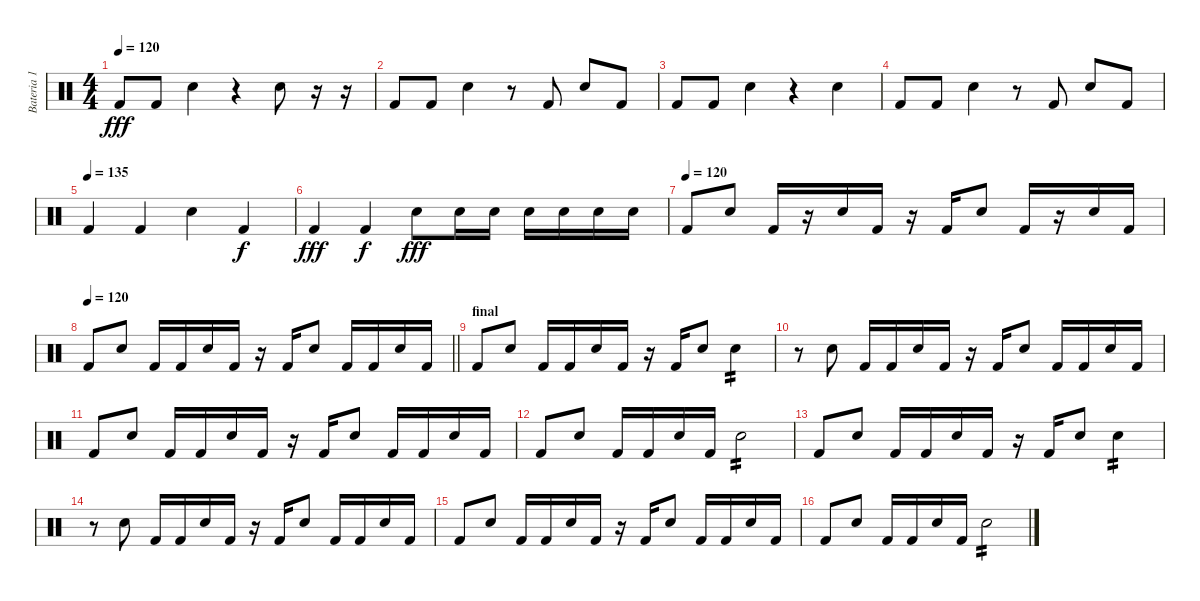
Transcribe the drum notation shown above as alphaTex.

\track ("Bateria 1" "Bateria 1") {instrument percussion}
\staff {score}
\articulation defaults
\ts (4 4)
\tempo 120
\clef neutral
\ks c "Kick (hit) 2".8{dy fff} "Kick (hit) 2".8 "Electric Snare (hit)".4
r.4 "Electric Snare (hit)".8 r.16 r.16 |
"Kick (hit) 2".8 "Kick (hit) 2".8 "Electric Snare (hit)".4 r.8 "Kick (hit) 2".8 "Electric Snare (hit)".8 "Kick (hit) 2".8 |
"Kick (hit) 2".8 "Kick (hit) 2".8 "Electric Snare (hit)".4 r.4 "Electric Snare (hit)".4 |
"Kick (hit) 2".8 "Kick (hit) 2".8 "Electric Snare (hit)".4 r.8 "Kick (hit) 2".8 "Electric Snare (hit)".8 "Kick (hit) 2".8 |
\tempo (135)
"Kick (hit) 2".4 "Kick (hit) 2".4 "Electric Snare (hit)".4 "Kick (hit) 2".4{dy f} |
"Kick (hit) 2".4{dy fff} "Kick (hit) 2".4{dy f} "Electric Snare (hit)".8{dy fff} "Electric Snare (hit)".16 "Electric Snare (hit)".16 "Electric Snare (hit)".16 "Electric Snare (hit)".16 "Electric Snare (hit)".16 "Electric Snare (hit)".16 |
\tempo (120)
"Kick (hit) 2".8 "Electric Snare (hit)".8 "Kick (hit) 2".16 r.16 "Electric Snare (hit)".16 "Kick (hit) 2".16 r.16 "Kick (hit) 2".16 "Electric Snare (hit)".8 "Kick (hit) 2".16 r.16 "Electric Snare (hit)".16 "Kick (hit) 2".16 |
\tempo 120
\barLineRight lightlight "Kick (hit) 2".8 "Electric Snare (hit)".8 "Kick (hit) 2".16 "Kick (hit) 2".16 "Electric Snare (hit)".16 "Kick (hit) 2".16
r.16 "Kick (hit) 2".16 "Electric Snare (hit)".8 "Kick (hit) 2".16 "Kick (hit) 2".16 "Electric Snare (hit)".16 "Kick (hit) 2".16 |
\section ("" "final")
"Kick (hit) 2".8 "Electric Snare (hit)".8 "Kick (hit) 2".16 "Kick (hit) 2".16 "Electric Snare (hit)".16 "Kick (hit) 2".16 r.16 "Kick (hit) 2".16 "Electric Snare (hit)".8 "Electric Snare (hit)".4{tp 2} |
r.8 "Electric Snare (hit)".8 "Kick (hit) 2".16 "Kick (hit) 2".16 "Electric Snare (hit)".16 "Kick (hit) 2".16 r.16 "Kick (hit) 2".16 "Electric Snare (hit)".8 "Kick (hit) 2".16 "Kick (hit) 2".16 "Electric Snare (hit)".16 "Kick (hit) 2".16 |
"Kick (hit) 2".8 "Electric Snare (hit)".8 "Kick (hit) 2".16 "Kick (hit) 2".16 "Electric Snare (hit)".16 "Kick (hit) 2".16 r.16 "Kick (hit) 2".16 "Electric Snare (hit)".8 "Kick (hit) 2".16 "Kick (hit) 2".16 "Electric Snare (hit)".16 "Kick (hit) 2".16 |
"Kick (hit) 2".8 "Electric Snare (hit)".8 "Kick (hit) 2".16 "Kick (hit) 2".16 "Electric Snare (hit)".16 "Kick (hit) 2".16 "Electric Snare (hit)".2{tp 2} |
"Kick (hit) 2".8 "Electric Snare (hit)".8 "Kick (hit) 2".16 "Kick (hit) 2".16 "Electric Snare (hit)".16 "Kick (hit) 2".16 r.16 "Kick (hit) 2".16 "Electric Snare (hit)".8 "Electric Snare (hit)".4{tp 2} |
r.8 "Electric Snare (hit)".8 "Kick (hit) 2".16 "Kick (hit) 2".16 "Electric Snare (hit)".16 "Kick (hit) 2".16 r.16 "Kick (hit) 2".16 "Electric Snare (hit)".8 "Kick (hit) 2".16 "Kick (hit) 2".16 "Electric Snare (hit)".16 "Kick (hit) 2".16 |
"Kick (hit) 2".8 "Electric Snare (hit)".8 "Kick (hit) 2".16 "Kick (hit) 2".16 "Electric Snare (hit)".16 "Kick (hit) 2".16 r.16 "Kick (hit) 2".16 "Electric Snare (hit)".8 "Kick (hit) 2".16 "Kick (hit) 2".16 "Electric Snare (hit)".16 "Kick (hit) 2".16 |
"Kick (hit) 2".8 "Electric Snare (hit)".8 "Kick (hit) 2".16 "Kick (hit) 2".16 "Electric Snare (hit)".16 "Kick (hit) 2".16 "Electric Snare (hit)".2{tp 2}
